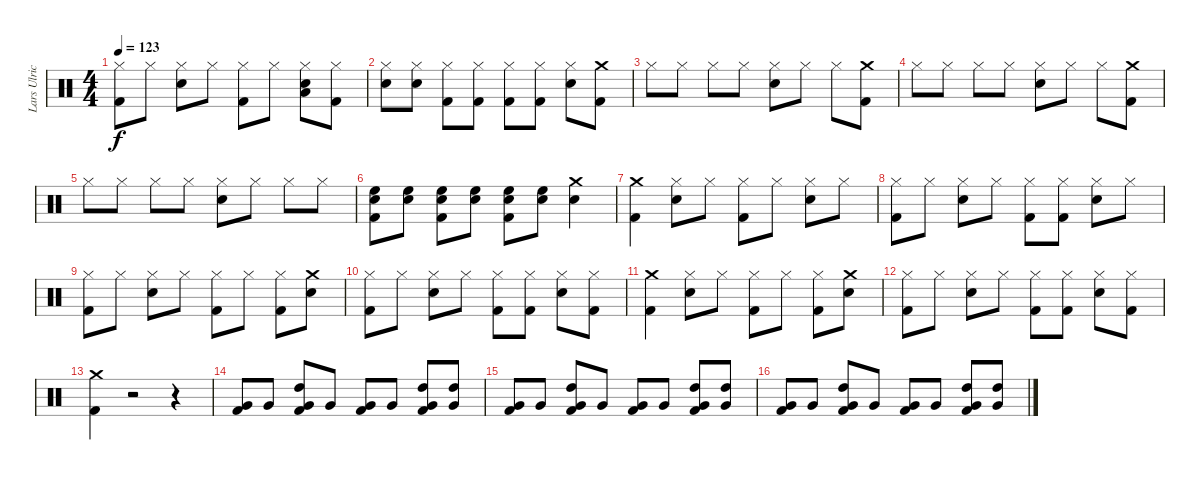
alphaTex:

\track ("Lars Ulrich (Drums)" "Lars Ulric") {instrument percussion}
\staff {score}
\articulation defaults
\ts (4 4)
\tempo 123
\clef neutral
\ks c
("Kick (hit) 2" "Hi-Hat (closed)").8{dy f} "Hi-Hat (closed)".8 ("Snare (hit) 2" "Hi-Hat (closed)").8 "Hi-Hat (closed)".8 ("Kick (hit) 2" "Hi-Hat (closed)").8 "Hi-Hat (closed)".8 ("Low Tom (hit)" "Snare (hit) 2" "Hi-Hat (closed)").8 ("Kick (hit) 2" "Hi-Hat (closed)").8 |
("Snare (hit) 2" "Hi-Hat (closed)").8 ("Snare (hit) 2" "Hi-Hat (closed)").8 ("Kick (hit) 2" "Hi-Hat (closed)").8 ("Kick (hit) 2" "Hi-Hat (closed)").8 ("Hi-Hat (closed)" "Kick (hit) 2").8 ("Hi-Hat (closed)" "Kick (hit) 2").8 ("Snare (hit) 2" "Hi-Hat (closed)").8 ("Crash medium (hit)" "Kick (hit) 2").8 |
"Hi-Hat (closed)".8 "Hi-Hat (closed)".8 "Hi-Hat (closed)".8 "Hi-Hat (closed)".8 ("Snare (hit) 2" "Hi-Hat (closed)").8 "Hi-Hat (closed)".8 "Hi-Hat (closed)".8 ("Kick (hit) 2" "Crash medium (hit)").8 |
"Hi-Hat (closed)".8 "Hi-Hat (closed)".8 "Hi-Hat (closed)".8 "Hi-Hat (closed)".8 ("Snare (hit) 2" "Hi-Hat (closed)").8 "Hi-Hat (closed)".8 "Hi-Hat (closed)".8 ("Kick (hit) 2" "Crash medium (hit)").8 |
"Hi-Hat (closed)".8 "Hi-Hat (closed)".8 "Hi-Hat (closed)".8 "Hi-Hat (closed)".8 ("Snare (hit) 2" "Hi-Hat (closed)").8 "Hi-Hat (closed)".8 "Hi-Hat (closed)".8 "Hi-Hat (closed)".8 |
("Kick (hit) 2" "High Floor Tom (hit)" "Snare (hit) 2").8 ("High Floor Tom (hit)" "Snare (hit) 2").8 ("Kick (hit) 2" "High Floor Tom (hit)" "Snare (hit) 2").8 ("High Floor Tom (hit)" "Snare (hit) 2").8 ("Kick (hit) 2" "High Floor Tom (hit)" "Snare (hit) 2").8 ("High Floor Tom (hit)" "Snare (hit) 2").8 ("Crash medium (hit)" "Snare (hit) 2").4 |
("Crash medium (hit)" "Kick (hit) 2").4 ("Hi-Hat (closed)" "Snare (hit) 2").8 "Hi-Hat (closed)".8 ("Hi-Hat (closed)" "Kick (hit) 2").8 "Hi-Hat (closed)".8 ("Snare (hit) 2" "Hi-Hat (closed)").8 "Hi-Hat (closed)".8 |
("Hi-Hat (closed)" "Kick (hit) 2").8 "Hi-Hat (closed)".8 ("Snare (hit) 2" "Hi-Hat (closed)").8 "Hi-Hat (closed)".8 ("Kick (hit) 2" "Hi-Hat (closed)").8 ("Kick (hit) 2" "Hi-Hat (closed)").8 ("Snare (hit) 2" "Hi-Hat (closed)").8 "Hi-Hat (closed)".8 |
("Hi-Hat (closed)" "Kick (hit) 2").8 "Hi-Hat (closed)".8 ("Snare (hit) 2" "Hi-Hat (closed)").8 "Hi-Hat (closed)".8 ("Hi-Hat (closed)" "Kick (hit) 2").8 "Hi-Hat (closed)".8 ("Hi-Hat (closed)" "Kick (hit) 2").8 ("Crash medium (hit)" "Snare (hit) 2").8 |
("Hi-Hat (closed)" "Kick (hit) 2").8 "Hi-Hat (closed)".8 ("Snare (hit) 2" "Hi-Hat (closed)").8 "Hi-Hat (closed)".8 ("Kick (hit) 2" "Hi-Hat (closed)").8 ("Kick (hit) 2" "Hi-Hat (closed)").8 ("Snare (hit) 2" "Hi-Hat (closed)").8 ("Kick (hit) 2" "Hi-Hat (closed)").8 |
("Kick (hit) 2" "Crash medium (hit)").4 ("Snare (hit) 2" "Hi-Hat (closed)").8 "Hi-Hat (closed)".8 ("Hi-Hat (closed)" "Kick (hit) 2").8 "Hi-Hat (closed)".8 ("Hi-Hat (closed)" "Kick (hit) 2").8 ("Crash medium (hit)" "Snare (hit) 2").8 |
("Hi-Hat (closed)" "Kick (hit) 2").8 "Hi-Hat (closed)".8 ("Snare (hit) 2" "Hi-Hat (closed)").8 "Hi-Hat (closed)".8 ("Kick (hit) 2" "Hi-Hat (closed)").8 ("Kick (hit) 2" "Hi-Hat (closed)").8 ("Snare (hit) 2" "Hi-Hat (closed)").8 ("Kick (hit) 2" "Hi-Hat (closed)").8 |
("Kick (hit) 2" "Crash medium (hit)").4 r.2 r.4 |
("Very Low Tom (hit)" "Kick (hit) 2").8 "Very Low Tom (hit)".8 ("High Tom (hit)" "Very Low Tom (hit)" "Kick (hit) 2").8 "Very Low Tom (hit)".8 ("Very Low Tom (hit)" "Kick (hit) 2").8 "Very Low Tom (hit)".8 ("High Tom (hit)" "Very Low Tom (hit)" "Kick (hit) 2").8 ("High Tom (hit)" "Very Low Tom (hit)").8 |
("Very Low Tom (hit)" "Kick (hit) 2").8 "Very Low Tom (hit)".8 ("High Tom (hit)" "Very Low Tom (hit)" "Kick (hit) 2").8 "Very Low Tom (hit)".8 ("Very Low Tom (hit)" "Kick (hit) 2").8 "Very Low Tom (hit)".8 ("High Tom (hit)" "Very Low Tom (hit)" "Kick (hit) 2").8 ("High Tom (hit)" "Very Low Tom (hit)").8 |
("Very Low Tom (hit)" "Kick (hit) 2").8 "Very Low Tom (hit)".8 ("High Tom (hit)" "Very Low Tom (hit)" "Kick (hit) 2").8 "Very Low Tom (hit)".8 ("Very Low Tom (hit)" "Kick (hit) 2").8 "Very Low Tom (hit)".8 ("High Tom (hit)" "Very Low Tom (hit)" "Kick (hit) 2").8 ("High Tom (hit)" "Very Low Tom (hit)").8
